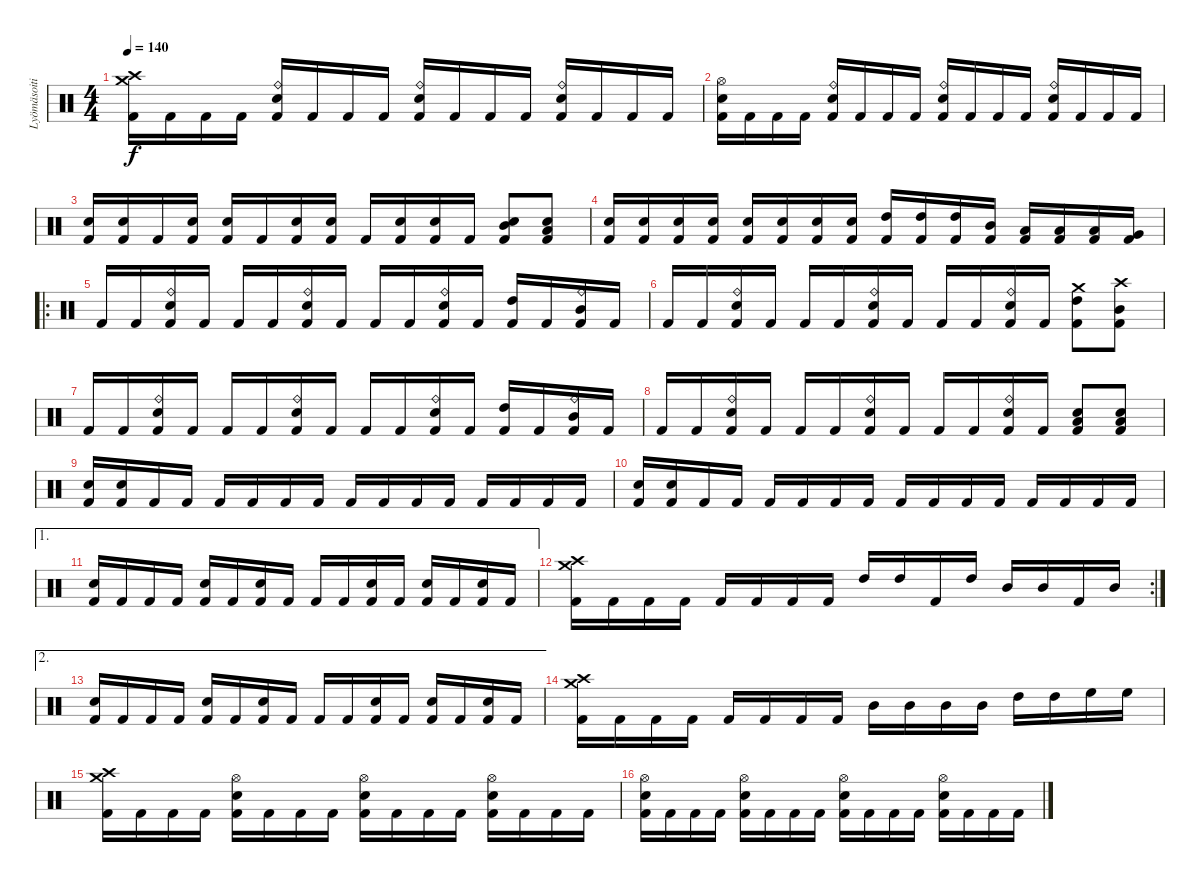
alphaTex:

\track ("Lyömäsoitin" "Lyömäsoiti") {instrument percussion}
\staff {score}
\articulation defaults
\ts (4 4)
\tempo 140
\clef neutral
\ks c
("Crash high (hit)" "Crash medium (hit)" "Kick (hit) 2").16{dy f} "Kick (hit) 2".16 "Kick (hit) 2".16 "Kick (hit) 2".16 ("Ride (bell)" "Snare (hit) 2" "Kick (hit) 2").16 "Kick (hit) 2".16 "Kick (hit) 2".16 "Kick (hit) 2".16 ("Ride (bell)" "Snare (hit) 2" "Kick (hit) 2").16 "Kick (hit) 2".16 "Kick (hit) 2".16 "Kick (hit) 2".16 ("Ride (bell)" "Snare (hit) 2" "Kick (hit) 2").16 "Kick (hit) 2".16 "Kick (hit) 2".16 "Kick (hit) 2".16 |
("Hi-Hat (open)" "Snare (hit) 2" "Kick (hit) 2").16 "Kick (hit) 2".16 "Kick (hit) 2".16 "Kick (hit) 2".16 ("Ride (bell)" "Snare (hit) 2" "Kick (hit) 2").16 "Kick (hit) 2".16 "Kick (hit) 2".16 "Kick (hit) 2".16 ("Ride (bell)" "Snare (hit) 2" "Kick (hit) 2").16 "Kick (hit) 2".16 "Kick (hit) 2".16 "Kick (hit) 2".16 ("Ride (bell)" "Snare (hit) 2" "Kick (hit) 2").16 "Kick (hit) 2".16 "Kick (hit) 2".16 "Kick (hit) 2".16 |
("Snare (hit) 2" "Kick (hit) 2").16 ("Snare (hit) 2" "Kick (hit) 2").16 "Kick (hit) 2".16 ("Snare (hit) 2" "Kick (hit) 2").16 ("Snare (hit) 2" "Kick (hit) 2").16 "Kick (hit) 2".16 ("Snare (hit) 2" "Kick (hit) 2").16 ("Snare (hit) 2" "Kick (hit) 2").16 "Kick (hit) 2".16 ("Snare (hit) 2" "Kick (hit) 2").16 ("Snare (hit) 2" "Kick (hit) 2").16 "Kick (hit) 2".16 ("Kick (hit) 2" "Mid Tom (hit)" "Snare (hit) 2").8 ("Kick (hit) 2" "Low Tom (hit)" "Snare (hit) 2").8 |
("Snare (hit) 2" "Kick (hit) 2").16 ("Snare (hit) 2" "Kick (hit) 2").16 ("Snare (hit) 2" "Kick (hit) 2").16 ("Snare (hit) 2" "Kick (hit) 2").16 ("Snare (hit) 2" "Kick (hit) 2").16 ("Snare (hit) 2" "Kick (hit) 2").16 ("Snare (hit) 2" "Kick (hit) 2").16 ("Snare (hit) 2" "Kick (hit) 2").16 ("High Tom (hit)" "Kick (hit) 2").16 ("High Tom (hit)" "Kick (hit) 2").16 ("High Tom (hit)" "Kick (hit) 2").16 ("Mid Tom (hit)" "Kick (hit) 2").16 ("Low Tom (hit)" "Kick (hit) 2").16 ("Low Tom (hit)" "Kick (hit) 2").16 ("Low Tom (hit)" "Kick (hit) 2").16 ("Very Low Tom (hit)" "Kick (hit) 2").16 |
\ro "Kick (hit) 2".16 "Kick (hit) 2".16
("Kick (hit) 2" "Snare (hit) 2" "Ride (bell)").16 "Kick (hit) 2".16 "Kick (hit) 2".16 "Kick (hit) 2".16 ("Kick (hit) 2" "Snare (hit) 2" "Ride (bell)").16 "Kick (hit) 2".16 "Kick (hit) 2".16 "Kick (hit) 2".16 ("Kick (hit) 2" "Snare (hit) 2" "Ride (bell)").16 "Kick (hit) 2".16 ("Kick (hit) 2" "High Tom (hit)").16 "Kick (hit) 2".16 ("Kick (hit) 2" "Mid Tom (hit)" "Ride (bell)").16 "Kick (hit) 2".16 |
"Kick (hit) 2".16 "Kick (hit) 2".16 ("Kick (hit) 2" "Snare (hit) 2" "Ride (bell)").16 "Kick (hit) 2".16 "Kick (hit) 2".16 "Kick (hit) 2".16 ("Kick (hit) 2" "Snare (hit) 2" "Ride (bell)").16 "Kick (hit) 2".16 "Kick (hit) 2".16 "Kick (hit) 2".16 ("Kick (hit) 2" "Snare (hit) 2" "Ride (bell)").16 "Kick (hit) 2".16 ("Kick (hit) 2" "High Tom (hit)" "Crash medium (hit)").8 ("Kick (hit) 2" "Mid Tom (hit)" "Crash high (hit)").8 |
"Kick (hit) 2".16 "Kick (hit) 2".16 ("Kick (hit) 2" "Snare (hit) 2" "Ride (bell)").16 "Kick (hit) 2".16 "Kick (hit) 2".16 "Kick (hit) 2".16 ("Kick (hit) 2" "Snare (hit) 2" "Ride (bell)").16 "Kick (hit) 2".16 "Kick (hit) 2".16 "Kick (hit) 2".16 ("Kick (hit) 2" "Snare (hit) 2" "Ride (bell)").16 "Kick (hit) 2".16 ("Kick (hit) 2" "High Tom (hit)").16 "Kick (hit) 2".16 ("Kick (hit) 2" "Mid Tom (hit)" "Ride (bell)").16 "Kick (hit) 2".16 |
"Kick (hit) 2".16 "Kick (hit) 2".16 ("Kick (hit) 2" "Snare (hit) 2" "Ride (bell)").16 "Kick (hit) 2".16 "Kick (hit) 2".16 "Kick (hit) 2".16 ("Kick (hit) 2" "Snare (hit) 2" "Ride (bell)").16 "Kick (hit) 2".16 "Kick (hit) 2".16 "Kick (hit) 2".16 ("Kick (hit) 2" "Snare (hit) 2" "Ride (bell)").16 "Kick (hit) 2".16 ("Kick (hit) 2" "Snare (hit) 2" "Low Tom (hit)").8 ("Kick (hit) 2" "Snare (hit) 2" "Low Tom (hit)").8 |
("Kick (hit) 2" "Snare (hit) 2").16 ("Kick (hit) 2" "Snare (hit) 2").16 "Kick (hit) 2".16 "Kick (hit) 2".16 "Kick (hit) 2".16 "Kick (hit) 2".16 "Kick (hit) 2".16 "Kick (hit) 2".16 "Kick (hit) 2".16 "Kick (hit) 2".16 "Kick (hit) 2".16 "Kick (hit) 2".16 "Kick (hit) 2".16 "Kick (hit) 2".16 "Kick (hit) 2".16 "Kick (hit) 2".16 |
("Kick (hit) 2" "Snare (hit) 2").16 ("Kick (hit) 2" "Snare (hit) 2").16 "Kick (hit) 2".16 "Kick (hit) 2".16 "Kick (hit) 2".16 "Kick (hit) 2".16 "Kick (hit) 2".16 "Kick (hit) 2".16 "Kick (hit) 2".16 "Kick (hit) 2".16 "Kick (hit) 2".16 "Kick (hit) 2".16 "Kick (hit) 2".16 "Kick (hit) 2".16 "Kick (hit) 2".16 "Kick (hit) 2".16 |
\ae 1
("Kick (hit) 2" "Snare (hit) 2").16 "Kick (hit) 2".16 "Kick (hit) 2".16 "Kick (hit) 2".16 ("Kick (hit) 2" "Snare (hit) 2").16 "Kick (hit) 2".16 ("Kick (hit) 2" "Snare (hit) 2").16 "Kick (hit) 2".16 "Kick (hit) 2".16 "Kick (hit) 2".16 ("Kick (hit) 2" "Snare (hit) 2").16 "Kick (hit) 2".16 ("Kick (hit) 2" "Snare (hit) 2").16 "Kick (hit) 2".16 ("Kick (hit) 2" "Snare (hit) 2").16 "Kick (hit) 2".16 |
\rc 2
("Crash medium (hit)" "Crash high (hit)" "Kick (hit) 2").16 "Kick (hit) 2".16 "Kick (hit) 2".16 "Kick (hit) 2".16 "Kick (hit) 2".16 "Kick (hit) 2".16 "Kick (hit) 2".16 "Kick (hit) 2".16 "High Tom (hit)".16 "High Tom (hit)".16 "Kick (hit) 2".16 "High Tom (hit)".16 "Mid Tom (hit)".16 "Mid Tom (hit)".16 "Kick (hit) 2".16 "Mid Tom (hit)".16 |
\ae 2
("Kick (hit) 2" "Snare (hit) 2").16 "Kick (hit) 2".16 "Kick (hit) 2".16 "Kick (hit) 2".16 ("Kick (hit) 2" "Snare (hit) 2").16 "Kick (hit) 2".16 ("Kick (hit) 2" "Snare (hit) 2").16 "Kick (hit) 2".16 "Kick (hit) 2".16 "Kick (hit) 2".16 ("Kick (hit) 2" "Snare (hit) 2").16 "Kick (hit) 2".16 ("Kick (hit) 2" "Snare (hit) 2").16 "Kick (hit) 2".16 ("Kick (hit) 2" "Snare (hit) 2").16 "Kick (hit) 2".16 |
("Crash medium (hit)" "Crash high (hit)" "Kick (hit) 2").16 "Kick (hit) 2".16 "Kick (hit) 2".16 "Kick (hit) 2".16 "Kick (hit) 2".16 "Kick (hit) 2".16 "Kick (hit) 2".16 "Kick (hit) 2".16 "Mid Tom (hit)".16 "Mid Tom (hit)".16 "Mid Tom (hit)".16 "Mid Tom (hit)".16 "High Tom (hit)".16 "High Tom (hit)".16 "High Floor Tom (hit)".16 "High Floor Tom (hit)".16 |
("Crash high (hit)" "Crash medium (hit)" "Kick (hit) 2").16 "Kick (hit) 2".16 "Kick (hit) 2".16 "Kick (hit) 2".16 ("Hi-Hat (open)" "Snare (hit) 2" "Kick (hit) 2").16 "Kick (hit) 2".16 "Kick (hit) 2".16 "Kick (hit) 2".16 ("Hi-Hat (open)" "Snare (hit) 2" "Kick (hit) 2").16 "Kick (hit) 2".16 "Kick (hit) 2".16 "Kick (hit) 2".16 ("Hi-Hat (open)" "Snare (hit) 2" "Kick (hit) 2").16 "Kick (hit) 2".16 "Kick (hit) 2".16 "Kick (hit) 2".16 |
("Hi-Hat (open)" "Snare (hit) 2" "Kick (hit) 2").16 "Kick (hit) 2".16 "Kick (hit) 2".16 "Kick (hit) 2".16 ("Hi-Hat (open)" "Snare (hit) 2" "Kick (hit) 2").16 "Kick (hit) 2".16 "Kick (hit) 2".16 "Kick (hit) 2".16 ("Hi-Hat (open)" "Snare (hit) 2" "Kick (hit) 2").16 "Kick (hit) 2".16 "Kick (hit) 2".16 "Kick (hit) 2".16 ("Hi-Hat (open)" "Snare (hit) 2" "Kick (hit) 2").16 "Kick (hit) 2".16 "Kick (hit) 2".16 "Kick (hit) 2".16
